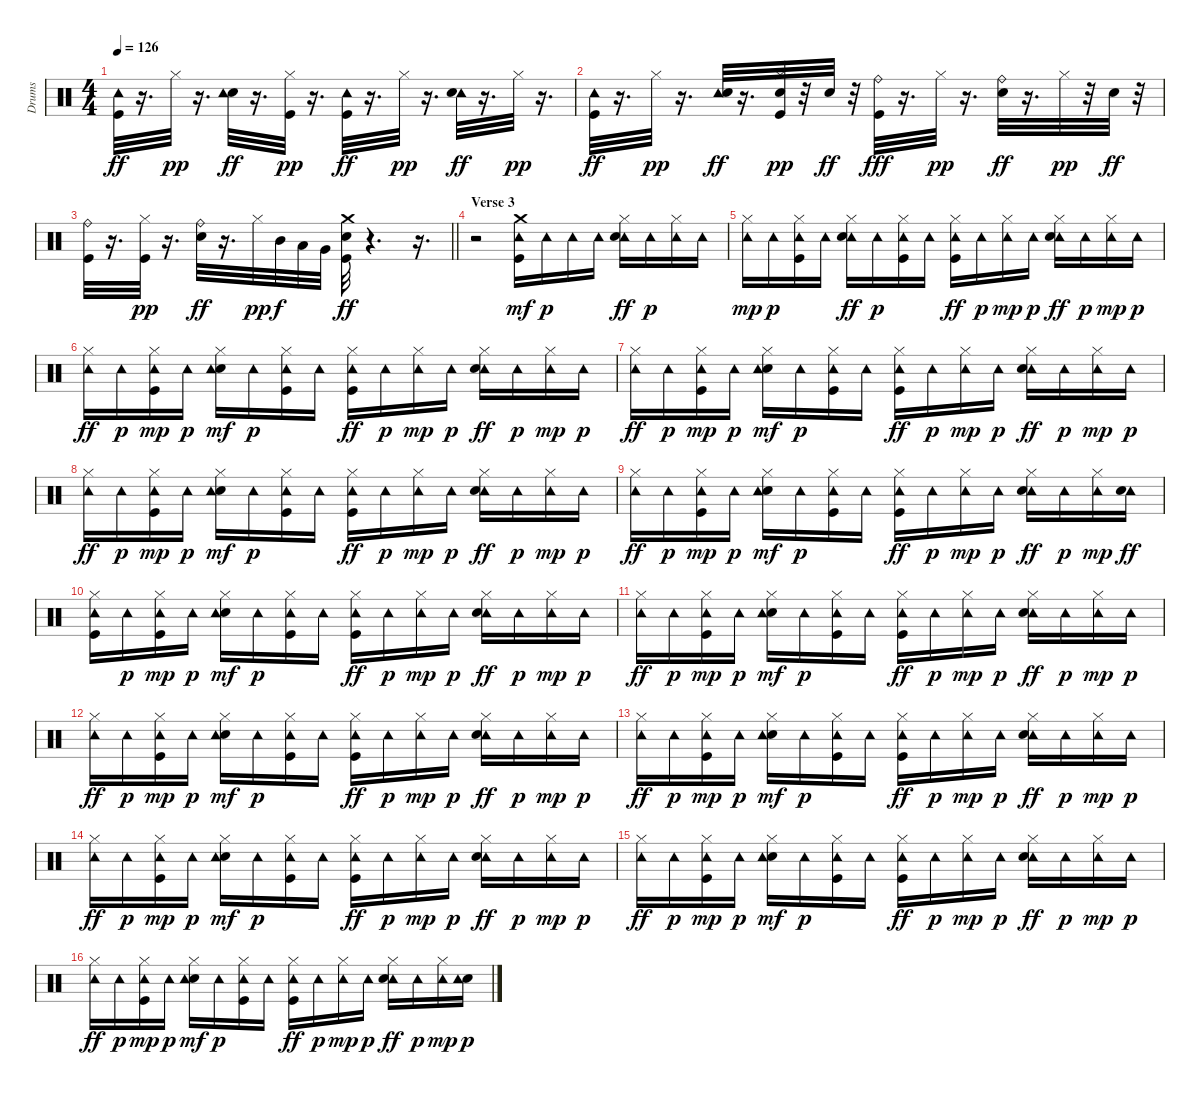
\track ("Drums" "Drums") {instrument percussion}
\staff {score}
\articulation defaults
\ts (4 4)
\tempo 126
\clef neutral
\ks c
("Kick (hit)" "Tambourine (hit)").32{dy ff} r.16{d} "Hi-Hat (closed)".32{dy pp} r.16{d} ("Electric Snare (hit)" "Tambourine (hit)").32{dy ff} r.16{d} ("Kick (hit)" "Hi-Hat (closed)").32{dy pp} r.16{d} ("Tambourine (hit)" "Kick (hit)").32{dy ff} r.16{d} "Hi-Hat (closed)".32{dy pp} r.16{d} ("Tambourine (hit)" "Electric Snare (hit)").32{dy ff} r.16{d} "Hi-Hat (closed)".32{dy pp} r.16{d} |
("Kick (hit)" "Tambourine (hit)").32{dy ff} r.16{d} "Hi-Hat (closed)".32{dy pp} r.16{d} ("Tambourine (hit)" "Electric Snare (hit)").32{dy ff} r.16{d} ("Electric Snare (hit)" "Kick (hit)" "Hi-Hat (closed)").32{dy pp} r.32 "Electric Snare (hit)".32{dy ff} r.32 ("Kick (hit)" "Ride (bell)").32{dy fff} r.16{d} "Hi-Hat (closed)".32{dy pp} r.16{d} ("Electric Snare (hit)" "Ride (bell)").32{dy ff} r.16{d} "Hi-Hat (closed)".32{dy pp} r.32 "Electric Snare (hit)".32{dy ff} r.32 |
\barLineRight lightlight
("Ride (bell)" "Kick (hit)").32 r.16{d} ("Hi-Hat (closed)" "Kick (hit)").32{dy pp} r.16{d} ("Electric Snare (hit)" "Ride (bell)").32{dy ff} r.16{d} "Hi-Hat (closed)".32{dy pp} "Mid Tom (hit)".32{dy f} "Low Tom (hit)".32 "Very Low Tom (hit)".32 ("Crash medium (hit)" "Kick (hit)" "Electric Snare (hit)").32{dy ff} r.4{d} r.16{d} |
\section ("" "Verse 3")
r.2 ("Tambourine (hit)" "Crash medium (hit)" "Kick (hit)").16{dy mf} "Tambourine (hit)".16{dy p} "Tambourine (hit)".16 "Tambourine (hit)".16 ("Tambourine (hit)" "Hi-Hat (closed)" "Electric Snare (hit)").16{dy ff} "Tambourine (hit)".16{dy p} ("Tambourine (hit)" "Hi-Hat (closed)").16 "Tambourine (hit)".16 |
("Tambourine (hit)" "Hi-Hat (closed)").16{dy mp} "Tambourine (hit)".16{dy p} ("Hi-Hat (closed)" "Tambourine (hit)" "Kick (hit)").16 "Tambourine (hit)".16 ("Tambourine (hit)" "Hi-Hat (closed)" "Electric Snare (hit)").16{dy ff} "Tambourine (hit)".16{dy p} ("Kick (hit)" "Tambourine (hit)" "Hi-Hat (closed)").16 "Tambourine (hit)".16 ("Tambourine (hit)" "Kick (hit)" "Hi-Hat (closed)").16{dy ff} "Tambourine (hit)".16{dy p} ("Tambourine (hit)" "Hi-Hat (closed)").16{dy mp} "Tambourine (hit)".16{dy p} ("Tambourine (hit)" "Hi-Hat (closed)" "Electric Snare (hit)").16{dy ff} "Tambourine (hit)".16{dy p} ("Tambourine (hit)" "Hi-Hat (closed)").16{dy mp} "Tambourine (hit)".16{dy p} |
("Tambourine (hit)" "Hi-Hat (closed)").16{dy ff} "Tambourine (hit)".16{dy p} ("Tambourine (hit)" "Kick (hit)" "Hi-Hat (closed)").16{dy mp} "Tambourine (hit)".16{dy p} ("Electric Snare (hit)" "Tambourine (hit)" "Hi-Hat (closed)").16{dy mf} "Tambourine (hit)".16{dy p} ("Kick (hit)" "Tambourine (hit)" "Hi-Hat (closed)").16 "Tambourine (hit)".16 ("Tambourine (hit)" "Kick (hit)" "Hi-Hat (closed)").16{dy ff} "Tambourine (hit)".16{dy p} ("Tambourine (hit)" "Hi-Hat (closed)").16{dy mp} "Tambourine (hit)".16{dy p} ("Tambourine (hit)" "Hi-Hat (closed)" "Electric Snare (hit)").16{dy ff} "Tambourine (hit)".16{dy p} ("Tambourine (hit)" "Hi-Hat (closed)").16{dy mp} "Tambourine (hit)".16{dy p} |
("Tambourine (hit)" "Hi-Hat (closed)").16{dy ff} "Tambourine (hit)".16{dy p} ("Tambourine (hit)" "Kick (hit)" "Hi-Hat (closed)").16{dy mp} "Tambourine (hit)".16{dy p} ("Electric Snare (hit)" "Tambourine (hit)" "Hi-Hat (closed)").16{dy mf} "Tambourine (hit)".16{dy p} ("Kick (hit)" "Tambourine (hit)" "Hi-Hat (closed)").16 "Tambourine (hit)".16 ("Tambourine (hit)" "Kick (hit)" "Hi-Hat (closed)").16{dy ff} "Tambourine (hit)".16{dy p} ("Tambourine (hit)" "Hi-Hat (closed)").16{dy mp} "Tambourine (hit)".16{dy p} ("Tambourine (hit)" "Hi-Hat (closed)" "Electric Snare (hit)").16{dy ff} "Tambourine (hit)".16{dy p} ("Tambourine (hit)" "Hi-Hat (closed)").16{dy mp} "Tambourine (hit)".16{dy p} |
("Tambourine (hit)" "Hi-Hat (closed)").16{dy ff} "Tambourine (hit)".16{dy p} ("Tambourine (hit)" "Kick (hit)" "Hi-Hat (closed)").16{dy mp} "Tambourine (hit)".16{dy p} ("Electric Snare (hit)" "Tambourine (hit)" "Hi-Hat (closed)").16{dy mf} "Tambourine (hit)".16{dy p} ("Kick (hit)" "Tambourine (hit)" "Hi-Hat (closed)").16 "Tambourine (hit)".16 ("Tambourine (hit)" "Kick (hit)" "Hi-Hat (closed)").16{dy ff} "Tambourine (hit)".16{dy p} ("Tambourine (hit)" "Hi-Hat (closed)").16{dy mp} "Tambourine (hit)".16{dy p} ("Tambourine (hit)" "Hi-Hat (closed)" "Electric Snare (hit)").16{dy ff} "Tambourine (hit)".16{dy p} ("Tambourine (hit)" "Hi-Hat (closed)").16{dy mp} "Tambourine (hit)".16{dy p} |
("Tambourine (hit)" "Hi-Hat (closed)").16{dy ff} "Tambourine (hit)".16{dy p} ("Tambourine (hit)" "Kick (hit)" "Hi-Hat (closed)").16{dy mp} "Tambourine (hit)".16{dy p} ("Electric Snare (hit)" "Tambourine (hit)" "Hi-Hat (closed)").16{dy mf} "Tambourine (hit)".16{dy p} ("Kick (hit)" "Tambourine (hit)" "Hi-Hat (closed)").16 "Tambourine (hit)".16 ("Tambourine (hit)" "Kick (hit)" "Hi-Hat (closed)").16{dy ff} "Tambourine (hit)".16{dy p} ("Tambourine (hit)" "Hi-Hat (closed)").16{dy mp} "Tambourine (hit)".16{dy p} ("Tambourine (hit)" "Hi-Hat (closed)" "Electric Snare (hit)").16{dy ff} "Tambourine (hit)".16{dy p} ("Tambourine (hit)" "Hi-Hat (closed)").16{dy mp} ("Tambourine (hit)" "Electric Snare (hit)").16{dy ff} |
("Tambourine (hit)" "Hi-Hat (closed)" "Kick (hit)").16 "Tambourine (hit)".16{dy p} ("Tambourine (hit)" "Kick (hit)" "Hi-Hat (closed)").16{dy mp} "Tambourine (hit)".16{dy p} ("Electric Snare (hit)" "Tambourine (hit)" "Hi-Hat (closed)").16{dy mf} "Tambourine (hit)".16{dy p} ("Kick (hit)" "Tambourine (hit)" "Hi-Hat (closed)").16 "Tambourine (hit)".16 ("Tambourine (hit)" "Kick (hit)" "Hi-Hat (closed)").16{dy ff} "Tambourine (hit)".16{dy p} ("Tambourine (hit)" "Hi-Hat (closed)").16{dy mp} "Tambourine (hit)".16{dy p} ("Tambourine (hit)" "Hi-Hat (closed)" "Electric Snare (hit)").16{dy ff} "Tambourine (hit)".16{dy p} ("Tambourine (hit)" "Hi-Hat (closed)").16{dy mp} "Tambourine (hit)".16{dy p} |
("Tambourine (hit)" "Hi-Hat (closed)").16{dy ff} "Tambourine (hit)".16{dy p} ("Tambourine (hit)" "Kick (hit)" "Hi-Hat (closed)").16{dy mp} "Tambourine (hit)".16{dy p} ("Electric Snare (hit)" "Tambourine (hit)" "Hi-Hat (closed)").16{dy mf} "Tambourine (hit)".16{dy p} ("Kick (hit)" "Tambourine (hit)" "Hi-Hat (closed)").16 "Tambourine (hit)".16 ("Tambourine (hit)" "Kick (hit)" "Hi-Hat (closed)").16{dy ff} "Tambourine (hit)".16{dy p} ("Tambourine (hit)" "Hi-Hat (closed)").16{dy mp} "Tambourine (hit)".16{dy p} ("Tambourine (hit)" "Hi-Hat (closed)" "Electric Snare (hit)").16{dy ff} "Tambourine (hit)".16{dy p} ("Tambourine (hit)" "Hi-Hat (closed)").16{dy mp} "Tambourine (hit)".16{dy p} |
("Tambourine (hit)" "Hi-Hat (closed)").16{dy ff} "Tambourine (hit)".16{dy p} ("Tambourine (hit)" "Kick (hit)" "Hi-Hat (closed)").16{dy mp} "Tambourine (hit)".16{dy p} ("Electric Snare (hit)" "Tambourine (hit)" "Hi-Hat (closed)").16{dy mf} "Tambourine (hit)".16{dy p} ("Kick (hit)" "Tambourine (hit)" "Hi-Hat (closed)").16 "Tambourine (hit)".16 ("Tambourine (hit)" "Kick (hit)" "Hi-Hat (closed)").16{dy ff} "Tambourine (hit)".16{dy p} ("Tambourine (hit)" "Hi-Hat (closed)").16{dy mp} "Tambourine (hit)".16{dy p} ("Tambourine (hit)" "Hi-Hat (closed)" "Electric Snare (hit)").16{dy ff} "Tambourine (hit)".16{dy p} ("Tambourine (hit)" "Hi-Hat (closed)").16{dy mp} "Tambourine (hit)".16{dy p} |
("Tambourine (hit)" "Hi-Hat (closed)").16{dy ff} "Tambourine (hit)".16{dy p} ("Tambourine (hit)" "Kick (hit)" "Hi-Hat (closed)").16{dy mp} "Tambourine (hit)".16{dy p} ("Electric Snare (hit)" "Tambourine (hit)" "Hi-Hat (closed)").16{dy mf} "Tambourine (hit)".16{dy p} ("Kick (hit)" "Tambourine (hit)" "Hi-Hat (closed)").16 "Tambourine (hit)".16 ("Tambourine (hit)" "Kick (hit)" "Hi-Hat (closed)").16{dy ff} "Tambourine (hit)".16{dy p} ("Tambourine (hit)" "Hi-Hat (closed)").16{dy mp} "Tambourine (hit)".16{dy p} ("Tambourine (hit)" "Hi-Hat (closed)" "Electric Snare (hit)").16{dy ff} "Tambourine (hit)".16{dy p} ("Tambourine (hit)" "Hi-Hat (closed)").16{dy mp} "Tambourine (hit)".16{dy p} |
("Tambourine (hit)" "Hi-Hat (closed)").16{dy ff} "Tambourine (hit)".16{dy p} ("Tambourine (hit)" "Kick (hit)" "Hi-Hat (closed)").16{dy mp} "Tambourine (hit)".16{dy p} ("Electric Snare (hit)" "Tambourine (hit)" "Hi-Hat (closed)").16{dy mf} "Tambourine (hit)".16{dy p} ("Kick (hit)" "Tambourine (hit)" "Hi-Hat (closed)").16 "Tambourine (hit)".16 ("Tambourine (hit)" "Kick (hit)" "Hi-Hat (closed)").16{dy ff} "Tambourine (hit)".16{dy p} ("Tambourine (hit)" "Hi-Hat (closed)").16{dy mp} "Tambourine (hit)".16{dy p} ("Tambourine (hit)" "Hi-Hat (closed)" "Electric Snare (hit)").16{dy ff} "Tambourine (hit)".16{dy p} ("Tambourine (hit)" "Hi-Hat (closed)").16{dy mp} "Tambourine (hit)".16{dy p} |
("Tambourine (hit)" "Hi-Hat (closed)").16{dy ff} "Tambourine (hit)".16{dy p} ("Tambourine (hit)" "Kick (hit)" "Hi-Hat (closed)").16{dy mp} "Tambourine (hit)".16{dy p} ("Electric Snare (hit)" "Tambourine (hit)" "Hi-Hat (closed)").16{dy mf} "Tambourine (hit)".16{dy p} ("Kick (hit)" "Tambourine (hit)" "Hi-Hat (closed)").16 "Tambourine (hit)".16 ("Tambourine (hit)" "Kick (hit)" "Hi-Hat (closed)").16{dy ff} "Tambourine (hit)".16{dy p} ("Tambourine (hit)" "Hi-Hat (closed)").16{dy mp} "Tambourine (hit)".16{dy p} ("Tambourine (hit)" "Hi-Hat (closed)" "Electric Snare (hit)").16{dy ff} "Tambourine (hit)".16{dy p} ("Tambourine (hit)" "Hi-Hat (closed)").16{dy mp} "Tambourine (hit)".16{dy p} |
("Tambourine (hit)" "Hi-Hat (closed)").16{dy ff} "Tambourine (hit)".16{dy p} ("Tambourine (hit)" "Kick (hit)" "Hi-Hat (closed)").16{dy mp} "Tambourine (hit)".16{dy p} ("Electric Snare (hit)" "Tambourine (hit)" "Hi-Hat (closed)").16{dy mf} "Tambourine (hit)".16{dy p} ("Kick (hit)" "Tambourine (hit)" "Hi-Hat (closed)").16 "Tambourine (hit)".16 ("Tambourine (hit)" "Kick (hit)" "Hi-Hat (closed)").16{dy ff} "Tambourine (hit)".16{dy p} ("Tambourine (hit)" "Hi-Hat (closed)").16{dy mp} "Tambourine (hit)".16{dy p} ("Tambourine (hit)" "Hi-Hat (closed)" "Electric Snare (hit)").16{dy ff} "Tambourine (hit)".16{dy p} ("Tambourine (hit)" "Hi-Hat (closed)").16{dy mp} ("Electric Snare (hit)" "Tambourine (hit)").16{dy p}
